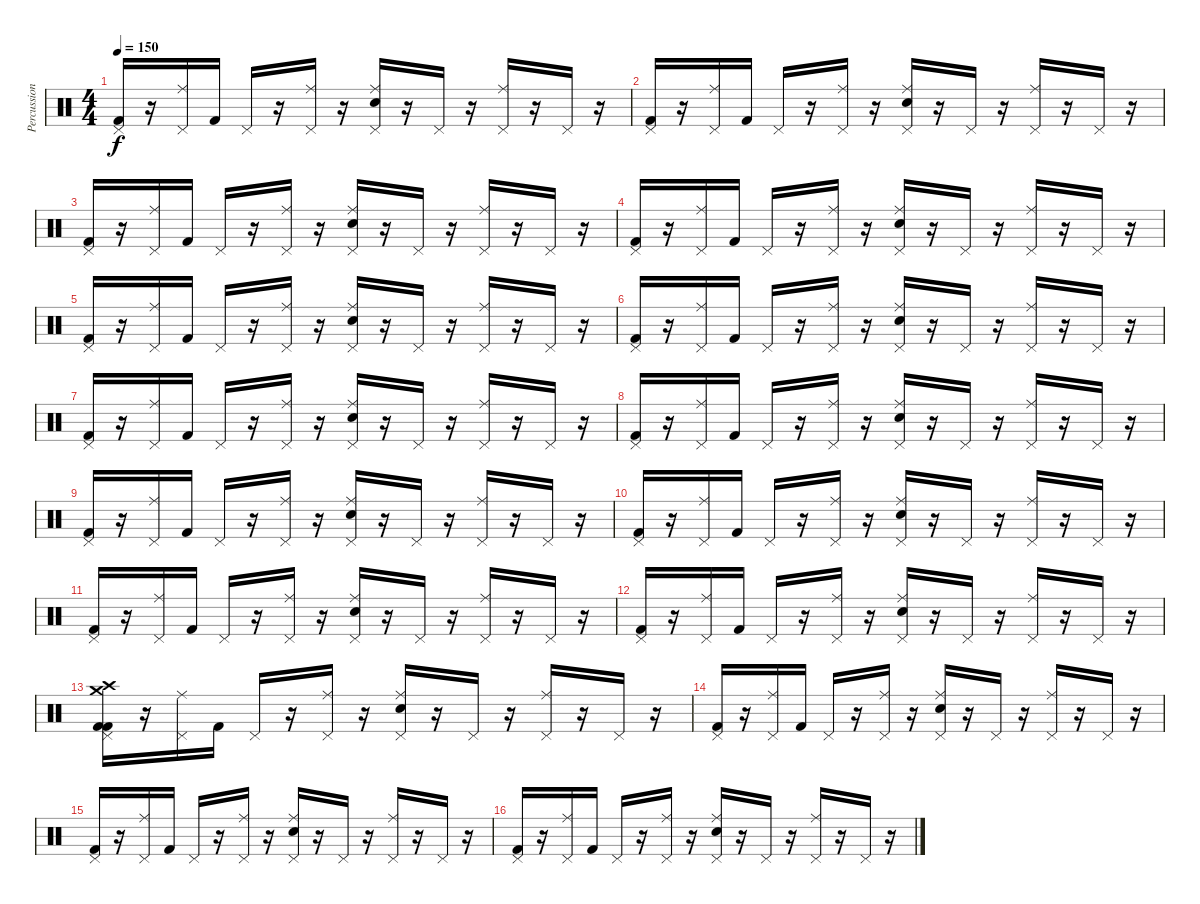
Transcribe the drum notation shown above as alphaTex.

\track ("Percussions" "Percussion") {instrument percussion}
\staff {score}
\articulation defaults
\ts (4 4)
\tempo 150
\clef neutral
\ks c
("Pedal Hi-Hat (hit)" "Kick (hit) 2").16{dy f} r.16 ("Pedal Hi-Hat (hit)" "Ride (middle)").16 "Kick (hit) 2".16 "Pedal Hi-Hat (hit)".16 r.16 ("Pedal Hi-Hat (hit)" "Ride (middle)").16 r.16 ("Pedal Hi-Hat (hit)" "Ride (middle)" "Snare (hit) 2").16 r.16 "Pedal Hi-Hat (hit)".16 r.16 ("Pedal Hi-Hat (hit)" "Ride (middle)").16 r.16 "Pedal Hi-Hat (hit)".16 r.16 |
("Pedal Hi-Hat (hit)" "Kick (hit) 2").16 r.16 ("Pedal Hi-Hat (hit)" "Ride (middle)").16 "Kick (hit) 2".16 "Pedal Hi-Hat (hit)".16 r.16 ("Pedal Hi-Hat (hit)" "Ride (middle)").16 r.16 ("Pedal Hi-Hat (hit)" "Ride (middle)" "Snare (hit) 2").16 r.16 "Pedal Hi-Hat (hit)".16 r.16 ("Pedal Hi-Hat (hit)" "Ride (middle)").16 r.16 "Pedal Hi-Hat (hit)".16 r.16 |
("Pedal Hi-Hat (hit)" "Kick (hit) 2").16 r.16 ("Pedal Hi-Hat (hit)" "Ride (middle)").16 "Kick (hit) 2".16 "Pedal Hi-Hat (hit)".16 r.16 ("Pedal Hi-Hat (hit)" "Ride (middle)").16 r.16 ("Pedal Hi-Hat (hit)" "Ride (middle)" "Snare (hit) 2").16 r.16 "Pedal Hi-Hat (hit)".16 r.16 ("Pedal Hi-Hat (hit)" "Ride (middle)").16 r.16 "Pedal Hi-Hat (hit)".16 r.16 |
("Pedal Hi-Hat (hit)" "Kick (hit) 2").16 r.16 ("Pedal Hi-Hat (hit)" "Ride (middle)").16 "Kick (hit) 2".16 "Pedal Hi-Hat (hit)".16 r.16 ("Pedal Hi-Hat (hit)" "Ride (middle)").16 r.16 ("Pedal Hi-Hat (hit)" "Ride (middle)" "Snare (hit) 2").16 r.16 "Pedal Hi-Hat (hit)".16 r.16 ("Pedal Hi-Hat (hit)" "Ride (middle)").16 r.16 "Pedal Hi-Hat (hit)".16 r.16 |
("Pedal Hi-Hat (hit)" "Kick (hit) 2").16 r.16 ("Pedal Hi-Hat (hit)" "Ride (middle)").16 "Kick (hit) 2".16 "Pedal Hi-Hat (hit)".16 r.16 ("Pedal Hi-Hat (hit)" "Ride (middle)").16 r.16 ("Pedal Hi-Hat (hit)" "Ride (middle)" "Snare (hit) 2").16 r.16 "Pedal Hi-Hat (hit)".16 r.16 ("Pedal Hi-Hat (hit)" "Ride (middle)").16 r.16 "Pedal Hi-Hat (hit)".16 r.16 |
("Pedal Hi-Hat (hit)" "Kick (hit) 2").16 r.16 ("Pedal Hi-Hat (hit)" "Ride (middle)").16 "Kick (hit) 2".16 "Pedal Hi-Hat (hit)".16 r.16 ("Pedal Hi-Hat (hit)" "Ride (middle)").16 r.16 ("Pedal Hi-Hat (hit)" "Ride (middle)" "Snare (hit) 2").16 r.16 "Pedal Hi-Hat (hit)".16 r.16 ("Pedal Hi-Hat (hit)" "Ride (middle)").16 r.16 "Pedal Hi-Hat (hit)".16 r.16 |
("Pedal Hi-Hat (hit)" "Kick (hit) 2").16 r.16 ("Pedal Hi-Hat (hit)" "Ride (middle)").16 "Kick (hit) 2".16 "Pedal Hi-Hat (hit)".16 r.16 ("Pedal Hi-Hat (hit)" "Ride (middle)").16 r.16 ("Pedal Hi-Hat (hit)" "Ride (middle)" "Snare (hit) 2").16 r.16 "Pedal Hi-Hat (hit)".16 r.16 ("Pedal Hi-Hat (hit)" "Ride (middle)").16 r.16 "Pedal Hi-Hat (hit)".16 r.16 |
("Pedal Hi-Hat (hit)" "Kick (hit) 2").16 r.16 ("Pedal Hi-Hat (hit)" "Ride (middle)").16 "Kick (hit) 2".16 "Pedal Hi-Hat (hit)".16 r.16 ("Pedal Hi-Hat (hit)" "Ride (middle)").16 r.16 ("Pedal Hi-Hat (hit)" "Ride (middle)" "Snare (hit) 2").16 r.16 "Pedal Hi-Hat (hit)".16 r.16 ("Pedal Hi-Hat (hit)" "Ride (middle)").16 r.16 "Pedal Hi-Hat (hit)".16 r.16 |
("Pedal Hi-Hat (hit)" "Kick (hit) 2").16 r.16 ("Pedal Hi-Hat (hit)" "Ride (middle)").16 "Kick (hit) 2".16 "Pedal Hi-Hat (hit)".16 r.16 ("Pedal Hi-Hat (hit)" "Ride (middle)").16 r.16 ("Pedal Hi-Hat (hit)" "Ride (middle)" "Snare (hit) 2").16 r.16 "Pedal Hi-Hat (hit)".16 r.16 ("Pedal Hi-Hat (hit)" "Ride (middle)").16 r.16 "Pedal Hi-Hat (hit)".16 r.16 |
("Pedal Hi-Hat (hit)" "Kick (hit) 2").16 r.16 ("Pedal Hi-Hat (hit)" "Ride (middle)").16 "Kick (hit) 2".16 "Pedal Hi-Hat (hit)".16 r.16 ("Pedal Hi-Hat (hit)" "Ride (middle)").16 r.16 ("Pedal Hi-Hat (hit)" "Ride (middle)" "Snare (hit) 2").16 r.16 "Pedal Hi-Hat (hit)".16 r.16 ("Pedal Hi-Hat (hit)" "Ride (middle)").16 r.16 "Pedal Hi-Hat (hit)".16 r.16 |
("Pedal Hi-Hat (hit)" "Kick (hit) 2").16 r.16 ("Pedal Hi-Hat (hit)" "Ride (middle)").16 "Kick (hit) 2".16 "Pedal Hi-Hat (hit)".16 r.16 ("Pedal Hi-Hat (hit)" "Ride (middle)").16 r.16 ("Pedal Hi-Hat (hit)" "Ride (middle)" "Snare (hit) 2").16 r.16 "Pedal Hi-Hat (hit)".16 r.16 ("Pedal Hi-Hat (hit)" "Ride (middle)").16 r.16 "Pedal Hi-Hat (hit)".16 r.16 |
("Pedal Hi-Hat (hit)" "Kick (hit) 2").16 r.16 ("Pedal Hi-Hat (hit)" "Ride (middle)").16 "Kick (hit) 2".16 "Pedal Hi-Hat (hit)".16 r.16 ("Pedal Hi-Hat (hit)" "Ride (middle)").16 r.16 ("Pedal Hi-Hat (hit)" "Ride (middle)" "Snare (hit) 2").16 r.16 "Pedal Hi-Hat (hit)".16 r.16 ("Pedal Hi-Hat (hit)" "Ride (middle)").16 r.16 "Pedal Hi-Hat (hit)".16 r.16 |
("Pedal Hi-Hat (hit)" "Kick (hit) 2" "Crash high (hit)" "Kick (hit) 2" "Crash medium (hit)").16 r.16 ("Pedal Hi-Hat (hit)" "Ride (middle)").16 "Kick (hit) 2".16 "Pedal Hi-Hat (hit)".16 r.16 ("Pedal Hi-Hat (hit)" "Ride (middle)").16 r.16 ("Pedal Hi-Hat (hit)" "Ride (middle)" "Snare (hit) 2").16 r.16 "Pedal Hi-Hat (hit)".16 r.16 ("Pedal Hi-Hat (hit)" "Ride (middle)").16 r.16 "Pedal Hi-Hat (hit)".16 r.16 |
("Pedal Hi-Hat (hit)" "Kick (hit) 2").16 r.16 ("Pedal Hi-Hat (hit)" "Ride (middle)").16 "Kick (hit) 2".16 "Pedal Hi-Hat (hit)".16 r.16 ("Pedal Hi-Hat (hit)" "Ride (middle)").16 r.16 ("Pedal Hi-Hat (hit)" "Ride (middle)" "Snare (hit) 2").16 r.16 "Pedal Hi-Hat (hit)".16 r.16 ("Pedal Hi-Hat (hit)" "Ride (middle)").16 r.16 "Pedal Hi-Hat (hit)".16 r.16 |
("Pedal Hi-Hat (hit)" "Kick (hit) 2").16 r.16 ("Pedal Hi-Hat (hit)" "Ride (middle)").16 "Kick (hit) 2".16 "Pedal Hi-Hat (hit)".16 r.16 ("Pedal Hi-Hat (hit)" "Ride (middle)").16 r.16 ("Pedal Hi-Hat (hit)" "Ride (middle)" "Snare (hit) 2").16 r.16 "Pedal Hi-Hat (hit)".16 r.16 ("Pedal Hi-Hat (hit)" "Ride (middle)").16 r.16 "Pedal Hi-Hat (hit)".16 r.16 |
("Pedal Hi-Hat (hit)" "Kick (hit) 2").16 r.16 ("Pedal Hi-Hat (hit)" "Ride (middle)").16 "Kick (hit) 2".16 "Pedal Hi-Hat (hit)".16 r.16 ("Pedal Hi-Hat (hit)" "Ride (middle)").16 r.16 ("Pedal Hi-Hat (hit)" "Ride (middle)" "Snare (hit) 2").16 r.16 "Pedal Hi-Hat (hit)".16 r.16 ("Pedal Hi-Hat (hit)" "Ride (middle)").16 r.16 "Pedal Hi-Hat (hit)".16 r.16
